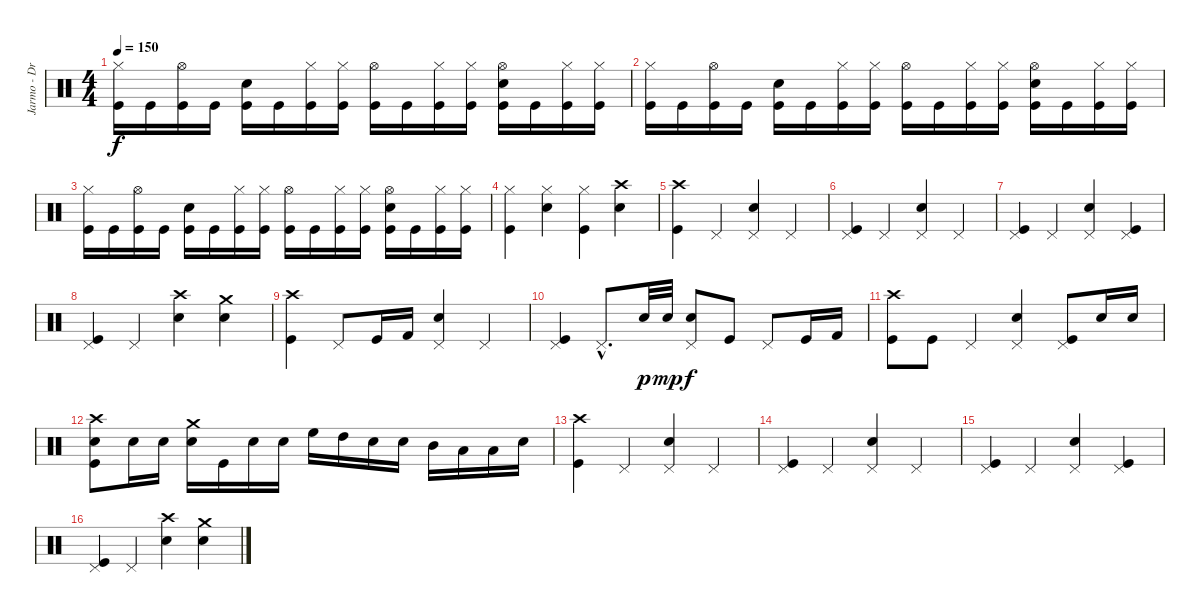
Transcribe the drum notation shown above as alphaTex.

\track ("Jarmo - Drums/Vodka" "Jarmo - Dr") {instrument percussion}
\staff {score}
\articulation defaults
\ts (4 4)
\tempo 150
\clef neutral
\ks c
("Kick (hit)" "Hi-Hat (closed)").16{dy f} "Kick (hit)".16 ("Kick (hit)" "Hi-Hat (open)").16 "Kick (hit)".16 ("Kick (hit)" "Electric Snare (hit)").16 "Kick (hit)".16 ("Kick (hit)" "Hi-Hat (closed)").16 ("Kick (hit)" "Hi-Hat (closed)").16 ("Kick (hit)" "Hi-Hat (open)").16 "Kick (hit)".16 ("Kick (hit)" "Hi-Hat (closed)").16 ("Kick (hit)" "Hi-Hat (closed)").16 ("Kick (hit)" "Electric Snare (hit)" "Hi-Hat (open)").16 "Kick (hit)".16 ("Kick (hit)" "Hi-Hat (closed)").16 ("Kick (hit)" "Hi-Hat (closed)").16 |
("Kick (hit)" "Hi-Hat (closed)").16 "Kick (hit)".16 ("Kick (hit)" "Hi-Hat (open)").16 "Kick (hit)".16 ("Kick (hit)" "Electric Snare (hit)").16 "Kick (hit)".16 ("Kick (hit)" "Hi-Hat (closed)").16 ("Kick (hit)" "Hi-Hat (closed)").16 ("Kick (hit)" "Hi-Hat (open)").16 "Kick (hit)".16 ("Kick (hit)" "Hi-Hat (closed)").16 ("Kick (hit)" "Hi-Hat (closed)").16 ("Kick (hit)" "Electric Snare (hit)" "Hi-Hat (open)").16 "Kick (hit)".16 ("Kick (hit)" "Hi-Hat (closed)").16 ("Kick (hit)" "Hi-Hat (closed)").16 |
("Kick (hit)" "Hi-Hat (closed)").16 "Kick (hit)".16 ("Kick (hit)" "Hi-Hat (open)").16 "Kick (hit)".16 ("Kick (hit)" "Electric Snare (hit)").16 "Kick (hit)".16 ("Kick (hit)" "Hi-Hat (closed)").16 ("Kick (hit)" "Hi-Hat (closed)").16 ("Kick (hit)" "Hi-Hat (open)").16 "Kick (hit)".16 ("Kick (hit)" "Hi-Hat (closed)").16 ("Kick (hit)" "Hi-Hat (closed)").16 ("Kick (hit)" "Electric Snare (hit)" "Hi-Hat (open)").16 "Kick (hit)".16 ("Kick (hit)" "Hi-Hat (closed)").16 ("Kick (hit)" "Hi-Hat (closed)").16 |
("Kick (hit)" "Hi-Hat (closed)").4 ("Electric Snare (hit)" "Hi-Hat (closed)").4 ("Kick (hit)" "Hi-Hat (closed)").4 ("Electric Snare (hit)" "Crash high (hit)").4 |
("Kick (hit)" "Crash high (hit)").4 "Pedal Hi-Hat (hit)".4 ("Electric Snare (hit)" "Pedal Hi-Hat (hit)").4 "Pedal Hi-Hat (hit)".4 |
("Kick (hit)" "Pedal Hi-Hat (hit)").4 "Pedal Hi-Hat (hit)".4 ("Electric Snare (hit)" "Pedal Hi-Hat (hit)").4 "Pedal Hi-Hat (hit)".4 |
("Kick (hit)" "Pedal Hi-Hat (hit)").4 "Pedal Hi-Hat (hit)".4 ("Electric Snare (hit)" "Pedal Hi-Hat (hit)").4 ("Kick (hit)" "Pedal Hi-Hat (hit)").4 |
("Kick (hit)" "Pedal Hi-Hat (hit)").4 "Pedal Hi-Hat (hit)".4 ("Electric Snare (hit)" "Crash high (hit)").4 ("Electric Snare (hit)" "Crash medium (hit)").4 |
("Kick (hit)" "Crash high (hit)").4 "Pedal Hi-Hat (hit)".8 "Kick (hit)".16 "Kick (hit) 2".16 ("Electric Snare (hit)" "Pedal Hi-Hat (hit)").4 "Pedal Hi-Hat (hit)".4 |
("Kick (hit)" "Pedal Hi-Hat (hit)").4 "Pedal Hi-Hat (hit)"{hac}.8{d} "Electric Snare (hit)".32{dy p} "Electric Snare (hit)".32{dy mp} ("Electric Snare (hit)" "Pedal Hi-Hat (hit)").8{dy f} "Kick (hit)".8 "Pedal Hi-Hat (hit)".8 "Kick (hit)".16 "Kick (hit) 2".16 |
("Kick (hit)" "Crash high (hit)").8 "Kick (hit)".8 "Pedal Hi-Hat (hit)".4 ("Electric Snare (hit)" "Pedal Hi-Hat (hit)").4 ("Kick (hit)" "Pedal Hi-Hat (hit)").8 "Electric Snare (hit)".16 "Electric Snare (hit)".16 |
("Kick (hit)" "Electric Snare (hit)" "Crash high (hit)").8 "Electric Snare (hit)".16 "Electric Snare (hit)".16 ("Electric Snare (hit)" "Crash medium (hit)").16 "Kick (hit)".16 "Electric Snare (hit)".16 "Electric Snare (hit)".16 "High Floor Tom (hit)".16 "High Tom (hit)".16 "Electric Snare (hit)".16 "Electric Snare (hit)".16 "Mid Tom (hit)".16 "Low Tom (hit)".16 "Low Tom (hit)".16 "Electric Snare (hit)".16 |
("Kick (hit)" "Crash high (hit)").4 "Pedal Hi-Hat (hit)".4 ("Electric Snare (hit)" "Pedal Hi-Hat (hit)").4 "Pedal Hi-Hat (hit)".4 |
("Kick (hit)" "Pedal Hi-Hat (hit)").4 "Pedal Hi-Hat (hit)".4 ("Electric Snare (hit)" "Pedal Hi-Hat (hit)").4 "Pedal Hi-Hat (hit)".4 |
("Kick (hit)" "Pedal Hi-Hat (hit)").4 "Pedal Hi-Hat (hit)".4 ("Electric Snare (hit)" "Pedal Hi-Hat (hit)").4 ("Kick (hit)" "Pedal Hi-Hat (hit)").4 |
("Kick (hit)" "Pedal Hi-Hat (hit)").4 "Pedal Hi-Hat (hit)".4 ("Electric Snare (hit)" "Crash high (hit)").4 ("Electric Snare (hit)" "Crash medium (hit)").4
